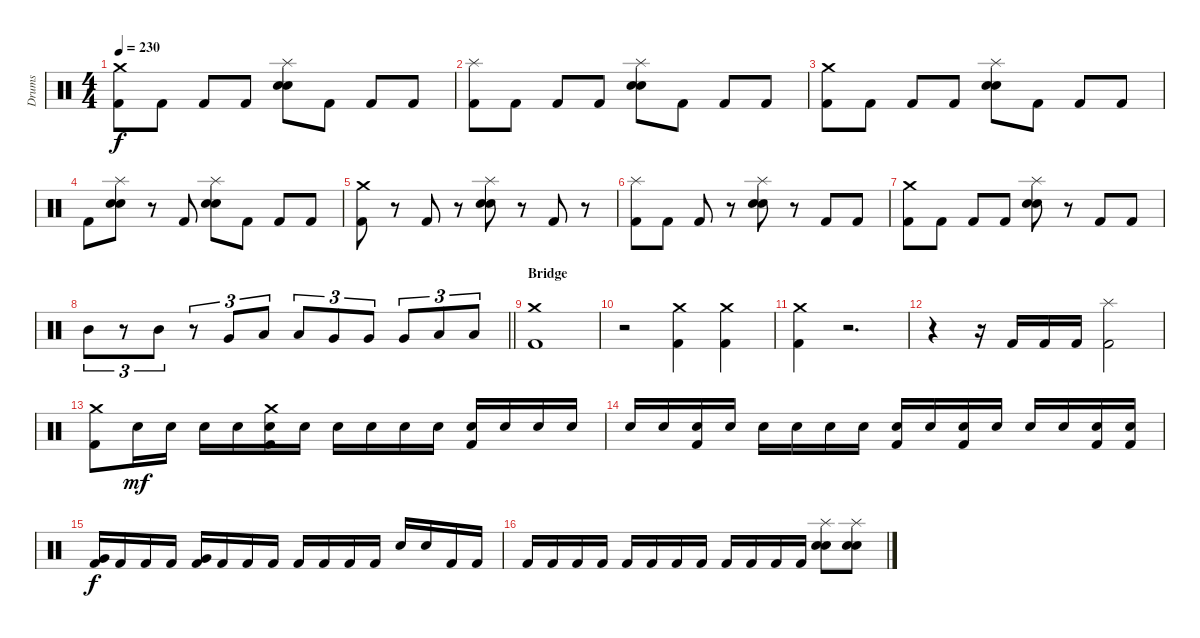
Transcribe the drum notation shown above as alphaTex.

\track ("Drums" "Drums") {instrument percussion}
\staff {score}
\articulation defaults
\ts (4 4)
\tempo 230
\clef neutral
\ks c
("Crash medium (hit)" "Kick (hit) 2").8{dy f} "Kick (hit) 2".8 "Kick (hit) 2".8 "Kick (hit) 2".8 ("Splash (hit)" "Electric Snare (hit)" "Snare (hit) 2").8 "Kick (hit) 2".8 "Kick (hit) 2".8 "Kick (hit) 2".8 |
("Splash (hit)" "Kick (hit) 2").8 "Kick (hit) 2".8 "Kick (hit) 2".8 "Kick (hit) 2".8 ("Splash (hit)" "Electric Snare (hit)" "Snare (hit) 2").8 "Kick (hit) 2".8 "Kick (hit) 2".8 "Kick (hit) 2".8 |
("Crash medium (hit)" "Kick (hit) 2").8 "Kick (hit) 2".8 "Kick (hit) 2".8 "Kick (hit) 2".8 ("Splash (hit)" "Electric Snare (hit)" "Snare (hit) 2").8 "Kick (hit) 2".8 "Kick (hit) 2".8 "Kick (hit) 2".8 |
"Kick (hit) 2".8 ("Splash (hit)" "Electric Snare (hit)" "Snare (hit) 2").8 r.8 "Kick (hit) 2".8 ("Splash (hit)" "Electric Snare (hit)" "Snare (hit) 2").8 "Kick (hit) 2".8 "Kick (hit) 2".8 "Kick (hit) 2".8 |
("Crash medium (hit)" "Kick (hit) 2").8 r.8 "Kick (hit) 2".8 r.8 ("Splash (hit)" "Electric Snare (hit)" "Snare (hit) 2").8 r.8 "Kick (hit) 2".8 r.8 |
("Splash (hit)" "Kick (hit) 2").8 "Kick (hit) 2".8 "Kick (hit) 2".8 r.8 ("Splash (hit)" "Electric Snare (hit)" "Snare (hit) 2").8 r.8 "Kick (hit) 2".8 "Kick (hit) 2".8 |
("Crash medium (hit)" "Kick (hit) 2").8 "Kick (hit) 2".8 "Kick (hit) 2".8 "Kick (hit) 2".8 ("Splash (hit)" "Electric Snare (hit)" "Snare (hit) 2").8 r.8 "Kick (hit) 2".8 "Kick (hit) 2".8 |
\barLineRight lightlight "Mid Tom (hit)".8{tu (3 2)}
r.8{tu (3 2)} "Mid Tom (hit)".8{tu (3 2)} r.8{tu (3 2)} "Very Low Tom (hit)".8{tu (3 2)} "Low Tom (hit)".8{tu (3 2)} "Low Tom (hit)".8{tu (3 2)} "Very Low Tom (hit)".8{tu (3 2)} "Very Low Tom (hit)".8{tu (3 2)} "Very Low Tom (hit)".8{tu (3 2)} "Low Floor Tom (hit)".8{tu (3 2)} "Low Floor Tom (hit)".8{tu (3 2)} |
\section ("" "Bridge")
("Crash medium (hit)" "Kick (hit) 2").1 |
r.2 ("Crash medium (hit)" "Kick (hit) 2").4 ("Crash medium (hit)" "Kick (hit) 2").4 |
("Crash medium (hit)" "Kick (hit) 2").4 r.2{d} |
r.4 r.16 "Kick (hit) 2".16 "Kick (hit) 2".16 "Kick (hit) 2".16 ("Splash (hit)" "Kick (hit) 2").2 |
("Crash medium (hit)" "Kick (hit) 2").8 "Electric Snare (hit)".16{dy mf} "Electric Snare (hit)".16 "Electric Snare (hit)".16 "Electric Snare (hit)".16 ("Crash medium (hit)" "Electric Snare (hit)" "Kick (hit) 2").16 "Electric Snare (hit)".16 "Electric Snare (hit)".16 "Electric Snare (hit)".16 "Electric Snare (hit)".16 "Electric Snare (hit)".16 ("Electric Snare (hit)" "Kick (hit) 2").16 "Electric Snare (hit)".16 "Electric Snare (hit)".16 "Electric Snare (hit)".16 |
"Electric Snare (hit)".16 "Electric Snare (hit)".16 ("Electric Snare (hit)" "Kick (hit) 2").16 "Electric Snare (hit)".16 "Electric Snare (hit)".16 "Electric Snare (hit)".16 "Electric Snare (hit)".16 "Electric Snare (hit)".16 ("Electric Snare (hit)" "Kick (hit) 2").16 "Electric Snare (hit)".16 ("Electric Snare (hit)" "Kick (hit) 2").16 "Electric Snare (hit)".16 "Electric Snare (hit)".16 "Electric Snare (hit)".16 ("Electric Snare (hit)" "Kick (hit) 2").16 ("Electric Snare (hit)" "Kick (hit) 2").16 |
("Very Low Tom (hit)" "Kick (hit) 2").16{dy f} "Kick (hit) 2".16 "Kick (hit) 2".16 "Kick (hit) 2".16 ("Very Low Tom (hit)" "Kick (hit) 2").16 "Kick (hit) 2".16 "Kick (hit) 2".16 "Kick (hit) 2".16 "Kick (hit) 2".16 "Kick (hit) 2".16 "Kick (hit) 2".16 "Kick (hit) 2".16 "Electric Snare (hit)".16 "Electric Snare (hit)".16 "Kick (hit) 2".16 "Kick (hit) 2".16 |
"Kick (hit) 2".16 "Kick (hit) 2".16 "Kick (hit) 2".16 "Kick (hit) 2".16 "Kick (hit) 2".16 "Kick (hit) 2".16 "Kick (hit) 2".16 "Kick (hit) 2".16 "Kick (hit) 2".16 "Kick (hit) 2".16 "Kick (hit) 2".16 "Kick (hit) 2".16 ("Splash (hit)" "Electric Snare (hit)" "Snare (hit) 2").8 ("Splash (hit)" "Electric Snare (hit)" "Snare (hit) 2").8
